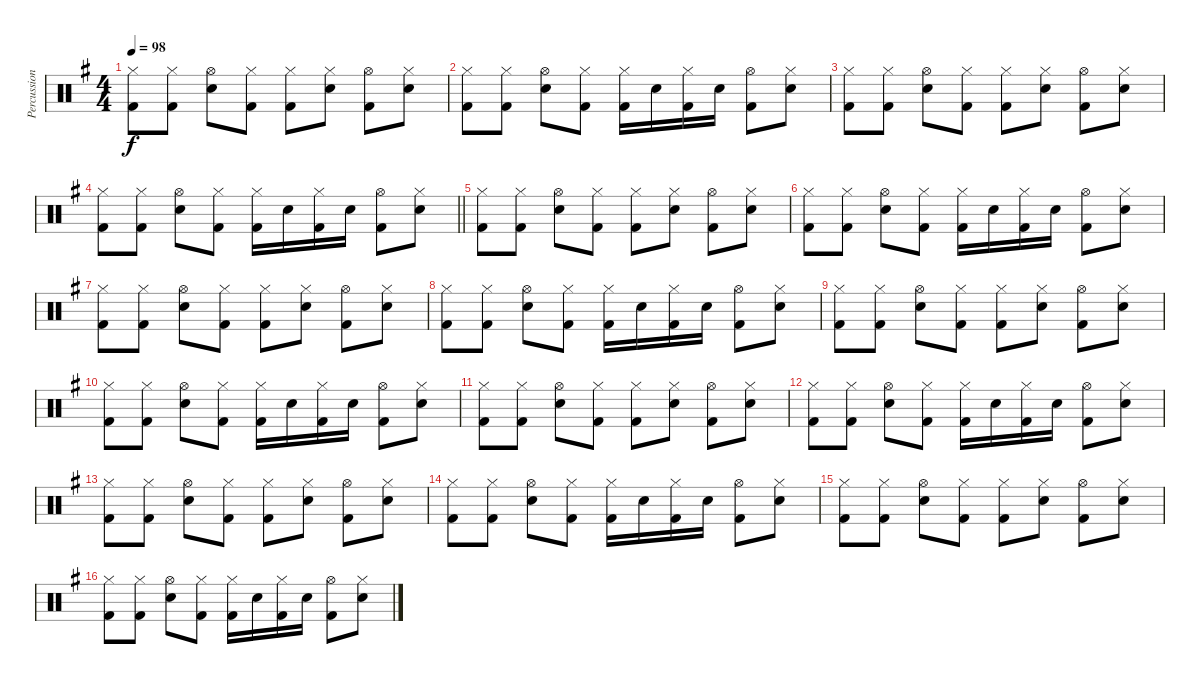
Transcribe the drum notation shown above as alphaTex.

\track ("Percussion" "Percussion") {instrument percussion}
\staff {score}
\articulation defaults
\ts (4 4)
\tempo 98
\clef neutral
\ks eminor
("Hi-Hat (closed)" "Kick (hit) 2").8{dy f} ("Hi-Hat (closed)" "Kick (hit) 2").8 ("Hi-Hat (open)" "Electric Snare (hit)").8 ("Hi-Hat (closed)" "Kick (hit) 2").8 ("Hi-Hat (closed)" "Kick (hit) 2").8 ("Hi-Hat (closed)" "Electric Snare (hit)").8 ("Hi-Hat (open)" "Kick (hit) 2").8 ("Hi-Hat (closed)" "Electric Snare (hit)").8 |
("Hi-Hat (closed)" "Kick (hit) 2").8 ("Hi-Hat (closed)" "Kick (hit) 2").8 ("Hi-Hat (open)" "Electric Snare (hit)").8 ("Hi-Hat (closed)" "Kick (hit) 2").8 ("Hi-Hat (closed)" "Kick (hit) 2").16 "Electric Snare (hit)".16 ("Hi-Hat (closed)" "Kick (hit) 2").16 "Electric Snare (hit)".16 ("Hi-Hat (open)" "Kick (hit) 2").8 ("Hi-Hat (closed)" "Electric Snare (hit)").8 |
("Hi-Hat (closed)" "Kick (hit) 2").8 ("Hi-Hat (closed)" "Kick (hit) 2").8 ("Hi-Hat (open)" "Electric Snare (hit)").8 ("Hi-Hat (closed)" "Kick (hit) 2").8 ("Hi-Hat (closed)" "Kick (hit) 2").8 ("Hi-Hat (closed)" "Electric Snare (hit)").8 ("Hi-Hat (open)" "Kick (hit) 2").8 ("Hi-Hat (closed)" "Electric Snare (hit)").8 |
\barLineRight lightlight
("Hi-Hat (closed)" "Kick (hit) 2").8 ("Hi-Hat (closed)" "Kick (hit) 2").8 ("Hi-Hat (open)" "Electric Snare (hit)").8 ("Hi-Hat (closed)" "Kick (hit) 2").8 ("Hi-Hat (closed)" "Kick (hit) 2").16 "Electric Snare (hit)".16 ("Hi-Hat (closed)" "Kick (hit) 2").16 "Electric Snare (hit)".16 ("Hi-Hat (open)" "Kick (hit) 2").8 ("Hi-Hat (closed)" "Electric Snare (hit)").8 |
("Hi-Hat (closed)" "Kick (hit) 2").8 ("Hi-Hat (closed)" "Kick (hit) 2").8 ("Hi-Hat (open)" "Electric Snare (hit)").8 ("Hi-Hat (closed)" "Kick (hit) 2").8 ("Hi-Hat (closed)" "Kick (hit) 2").8 ("Hi-Hat (closed)" "Electric Snare (hit)").8 ("Hi-Hat (open)" "Kick (hit) 2").8 ("Hi-Hat (closed)" "Electric Snare (hit)").8 |
("Hi-Hat (closed)" "Kick (hit) 2").8 ("Hi-Hat (closed)" "Kick (hit) 2").8 ("Hi-Hat (open)" "Electric Snare (hit)").8 ("Hi-Hat (closed)" "Kick (hit) 2").8 ("Hi-Hat (closed)" "Kick (hit) 2").16 "Electric Snare (hit)".16 ("Hi-Hat (closed)" "Kick (hit) 2").16 "Electric Snare (hit)".16 ("Hi-Hat (open)" "Kick (hit) 2").8 ("Hi-Hat (closed)" "Electric Snare (hit)").8 |
("Hi-Hat (closed)" "Kick (hit) 2").8 ("Hi-Hat (closed)" "Kick (hit) 2").8 ("Hi-Hat (open)" "Electric Snare (hit)").8 ("Hi-Hat (closed)" "Kick (hit) 2").8 ("Hi-Hat (closed)" "Kick (hit) 2").8 ("Hi-Hat (closed)" "Electric Snare (hit)").8 ("Hi-Hat (open)" "Kick (hit) 2").8 ("Hi-Hat (closed)" "Electric Snare (hit)").8 |
("Hi-Hat (closed)" "Kick (hit) 2").8 ("Hi-Hat (closed)" "Kick (hit) 2").8 ("Hi-Hat (open)" "Electric Snare (hit)").8 ("Hi-Hat (closed)" "Kick (hit) 2").8 ("Hi-Hat (closed)" "Kick (hit) 2").16 "Electric Snare (hit)".16 ("Hi-Hat (closed)" "Kick (hit) 2").16 "Electric Snare (hit)".16 ("Hi-Hat (open)" "Kick (hit) 2").8 ("Hi-Hat (closed)" "Electric Snare (hit)").8 |
("Hi-Hat (closed)" "Kick (hit) 2").8 ("Hi-Hat (closed)" "Kick (hit) 2").8 ("Hi-Hat (open)" "Electric Snare (hit)").8 ("Hi-Hat (closed)" "Kick (hit) 2").8 ("Hi-Hat (closed)" "Kick (hit) 2").8 ("Hi-Hat (closed)" "Electric Snare (hit)").8 ("Hi-Hat (open)" "Kick (hit) 2").8 ("Hi-Hat (closed)" "Electric Snare (hit)").8 |
("Hi-Hat (closed)" "Kick (hit) 2").8 ("Hi-Hat (closed)" "Kick (hit) 2").8 ("Hi-Hat (open)" "Electric Snare (hit)").8 ("Hi-Hat (closed)" "Kick (hit) 2").8 ("Hi-Hat (closed)" "Kick (hit) 2").16 "Electric Snare (hit)".16 ("Hi-Hat (closed)" "Kick (hit) 2").16 "Electric Snare (hit)".16 ("Hi-Hat (open)" "Kick (hit) 2").8 ("Hi-Hat (closed)" "Electric Snare (hit)").8 |
("Hi-Hat (closed)" "Kick (hit) 2").8 ("Hi-Hat (closed)" "Kick (hit) 2").8 ("Hi-Hat (open)" "Electric Snare (hit)").8 ("Hi-Hat (closed)" "Kick (hit) 2").8 ("Hi-Hat (closed)" "Kick (hit) 2").8 ("Hi-Hat (closed)" "Electric Snare (hit)").8 ("Hi-Hat (open)" "Kick (hit) 2").8 ("Hi-Hat (closed)" "Electric Snare (hit)").8 |
("Hi-Hat (closed)" "Kick (hit) 2").8 ("Hi-Hat (closed)" "Kick (hit) 2").8 ("Hi-Hat (open)" "Electric Snare (hit)").8 ("Hi-Hat (closed)" "Kick (hit) 2").8 ("Hi-Hat (closed)" "Kick (hit) 2").16 "Electric Snare (hit)".16 ("Hi-Hat (closed)" "Kick (hit) 2").16 "Electric Snare (hit)".16 ("Hi-Hat (open)" "Kick (hit) 2").8 ("Hi-Hat (closed)" "Electric Snare (hit)").8 |
("Hi-Hat (closed)" "Kick (hit) 2").8 ("Hi-Hat (closed)" "Kick (hit) 2").8 ("Hi-Hat (open)" "Electric Snare (hit)").8 ("Hi-Hat (closed)" "Kick (hit) 2").8 ("Hi-Hat (closed)" "Kick (hit) 2").8 ("Hi-Hat (closed)" "Electric Snare (hit)").8 ("Hi-Hat (open)" "Kick (hit) 2").8 ("Hi-Hat (closed)" "Electric Snare (hit)").8 |
("Hi-Hat (closed)" "Kick (hit) 2").8 ("Hi-Hat (closed)" "Kick (hit) 2").8 ("Hi-Hat (open)" "Electric Snare (hit)").8 ("Hi-Hat (closed)" "Kick (hit) 2").8 ("Hi-Hat (closed)" "Kick (hit) 2").16 "Electric Snare (hit)".16 ("Hi-Hat (closed)" "Kick (hit) 2").16 "Electric Snare (hit)".16 ("Hi-Hat (open)" "Kick (hit) 2").8 ("Hi-Hat (closed)" "Electric Snare (hit)").8 |
("Hi-Hat (closed)" "Kick (hit) 2").8 ("Hi-Hat (closed)" "Kick (hit) 2").8 ("Hi-Hat (open)" "Electric Snare (hit)").8 ("Hi-Hat (closed)" "Kick (hit) 2").8 ("Hi-Hat (closed)" "Kick (hit) 2").8 ("Hi-Hat (closed)" "Electric Snare (hit)").8 ("Hi-Hat (open)" "Kick (hit) 2").8 ("Hi-Hat (closed)" "Electric Snare (hit)").8 |
("Hi-Hat (closed)" "Kick (hit) 2").8 ("Hi-Hat (closed)" "Kick (hit) 2").8 ("Hi-Hat (open)" "Electric Snare (hit)").8 ("Hi-Hat (closed)" "Kick (hit) 2").8 ("Hi-Hat (closed)" "Kick (hit) 2").16 "Electric Snare (hit)".16 ("Hi-Hat (closed)" "Kick (hit) 2").16 "Electric Snare (hit)".16 ("Hi-Hat (open)" "Kick (hit) 2").8 ("Hi-Hat (closed)" "Electric Snare (hit)").8
